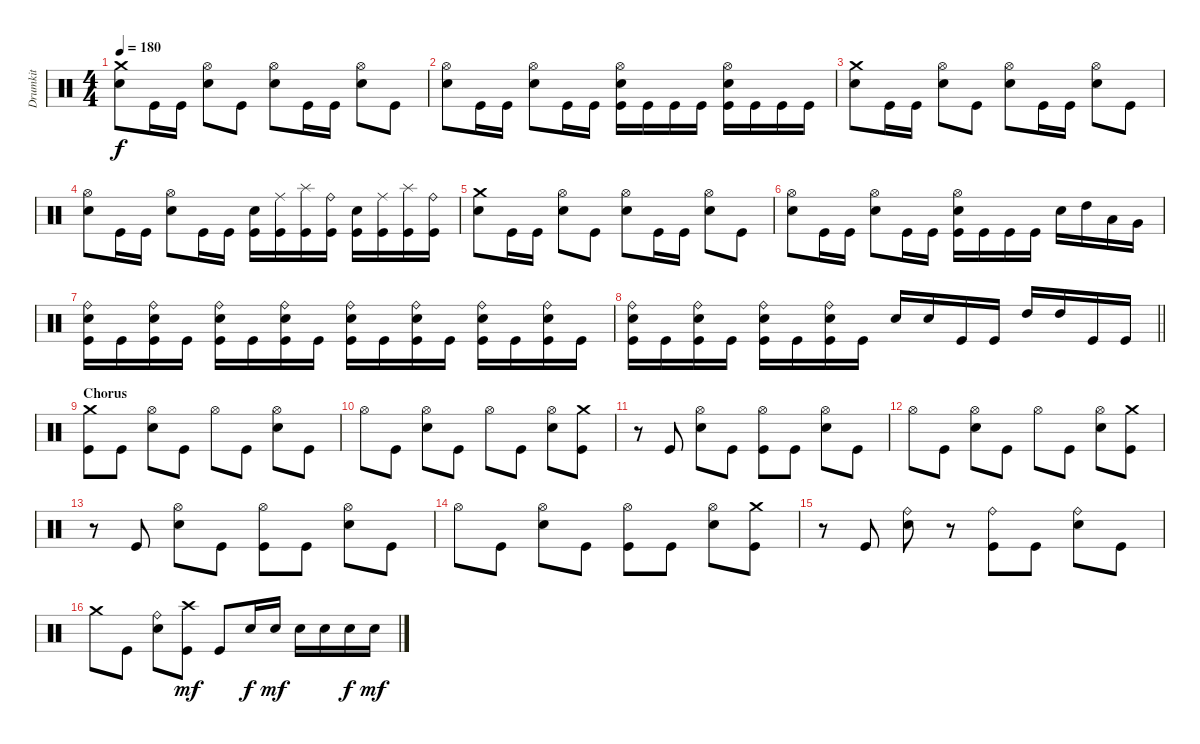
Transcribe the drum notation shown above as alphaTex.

\track ("Drumkit" "Drumkit") {instrument percussion}
\staff {score}
\articulation defaults
\ts (4 4)
\tempo 180
\clef neutral
\ks c
("Crash medium (hit)" "Snare (hit) 2").8{dy f} "Kick (hit)".16 "Kick (hit)".16 ("Hi-Hat (open)" "Snare (hit) 2").8 "Kick (hit)".8 ("Hi-Hat (open)" "Snare (hit) 2").8 "Kick (hit)".16 "Kick (hit)".16 ("Hi-Hat (open)" "Snare (hit) 2").8 "Kick (hit)".8 |
("Hi-Hat (open)" "Snare (hit) 2").8 "Kick (hit)".16 "Kick (hit)".16 ("Hi-Hat (open)" "Snare (hit) 2").8 "Kick (hit)".16 "Kick (hit)".16 ("Hi-Hat (open)" "Snare (hit) 2" "Kick (hit)").16 "Kick (hit)".16 "Kick (hit)".16 "Kick (hit)".16 ("Hi-Hat (open)" "Snare (hit) 2" "Kick (hit)").16 "Kick (hit)".16 "Kick (hit)".16 "Kick (hit)".16 |
("Crash medium (hit)" "Snare (hit) 2").8 "Kick (hit)".16 "Kick (hit)".16 ("Hi-Hat (open)" "Snare (hit) 2").8 "Kick (hit)".8 ("Hi-Hat (open)" "Snare (hit) 2").8 "Kick (hit)".16 "Kick (hit)".16 ("Hi-Hat (open)" "Snare (hit) 2").8 "Kick (hit)".8 |
("Hi-Hat (open)" "Snare (hit) 2").8 "Kick (hit)".16 "Kick (hit)".16 ("Hi-Hat (open)" "Snare (hit) 2").8 "Kick (hit)".16 "Kick (hit)".16 ("Snare (hit) 2" "Kick (hit)").16 ("Ride (middle)" "Kick (hit)").16 ("Splash (hit)" "Kick (hit)").16 ("Ride (bell)" "Kick (hit)").16 ("Snare (hit) 2" "Kick (hit)").16 ("Ride (middle)" "Kick (hit)").16 ("Splash (hit)" "Kick (hit)").16 ("Ride (bell)" "Kick (hit)").16 |
("Crash medium (hit)" "Snare (hit) 2").8 "Kick (hit)".16 "Kick (hit)".16 ("Hi-Hat (open)" "Snare (hit) 2").8 "Kick (hit)".8 ("Hi-Hat (open)" "Snare (hit) 2").8 "Kick (hit)".16 "Kick (hit)".16 ("Hi-Hat (open)" "Snare (hit) 2").8 "Kick (hit)".8 |
("Hi-Hat (open)" "Snare (hit) 2").8 "Kick (hit)".16 "Kick (hit)".16 ("Hi-Hat (open)" "Snare (hit) 2").8 "Kick (hit)".16 "Kick (hit)".16 ("Hi-Hat (open)" "Snare (hit) 2" "Kick (hit)").16 "Kick (hit)".16 "Kick (hit)".16 "Kick (hit)".16 "Snare (hit) 2".16 "High Tom (hit)".16 "Low Tom (hit)".16 "Very Low Tom (hit)".16 |
("Ride (bell)" "Snare (hit) 2" "Kick (hit)").16 "Kick (hit)".16 ("Ride (bell)" "Snare (hit) 2" "Kick (hit)").16 "Kick (hit)".16 ("Ride (bell)" "Snare (hit) 2" "Kick (hit)").16 "Kick (hit)".16 ("Ride (bell)" "Snare (hit) 2" "Kick (hit)").16 "Kick (hit)".16 ("Ride (bell)" "Snare (hit) 2" "Kick (hit)").16 "Kick (hit)".16 ("Ride (bell)" "Snare (hit) 2" "Kick (hit)").16 "Kick (hit)".16 ("Ride (bell)" "Snare (hit) 2" "Kick (hit)").16 "Kick (hit)".16 ("Ride (bell)" "Snare (hit) 2" "Kick (hit)").16 "Kick (hit)".16 |
\barLineRight lightlight
("Ride (bell)" "Snare (hit) 2" "Kick (hit)").16 "Kick (hit)".16 ("Ride (bell)" "Snare (hit) 2" "Kick (hit)").16 "Kick (hit)".16 ("Ride (bell)" "Snare (hit) 2" "Kick (hit)").16 "Kick (hit)".16 ("Ride (bell)" "Snare (hit) 2" "Kick (hit)").16 "Kick (hit)".16 "Snare (hit) 2".16 "Snare (hit) 2".16 "Kick (hit)".16 "Kick (hit)".16 "High Tom (hit)".16 "High Tom (hit)".16 "Kick (hit)".16 "Kick (hit)".16 |
\section ("" "Chorus")
("Crash medium (hit)" "Kick (hit)").8 "Kick (hit)".8 ("Hi-Hat (open)" "Snare (hit) 2").8 "Kick (hit)".8 "Hi-Hat (open)".8 "Kick (hit)".8 ("Hi-Hat (open)" "Snare (hit) 2").8 "Kick (hit)".8 |
"Hi-Hat (open)".8 "Kick (hit)".8 ("Hi-Hat (open)" "Snare (hit) 2").8 "Kick (hit)".8 "Hi-Hat (open)".8 "Kick (hit)".8 ("Hi-Hat (open)" "Snare (hit) 2").8 ("Crash medium (hit)" "Kick (hit)").8 |
r.8 "Kick (hit)".8 ("Hi-Hat (open)" "Snare (hit) 2").8 "Kick (hit)".8 ("Hi-Hat (open)" "Kick (hit)").8 "Kick (hit)".8 ("Hi-Hat (open)" "Snare (hit) 2").8 "Kick (hit)".8 |
"Hi-Hat (open)".8 "Kick (hit)".8 ("Hi-Hat (open)" "Snare (hit) 2").8 "Kick (hit)".8 "Hi-Hat (open)".8 "Kick (hit)".8 ("Hi-Hat (open)" "Snare (hit) 2").8 ("Crash medium (hit)" "Kick (hit)").8 |
r.8 "Kick (hit)".8 ("Hi-Hat (open)" "Snare (hit) 2").8 "Kick (hit)".8 ("Hi-Hat (open)" "Kick (hit)").8 "Kick (hit)".8 ("Hi-Hat (open)" "Snare (hit) 2").8 "Kick (hit)".8 |
"Hi-Hat (open)".8 "Kick (hit)".8 ("Hi-Hat (open)" "Snare (hit) 2").8 "Kick (hit)".8 ("Hi-Hat (open)" "Kick (hit)").8 "Kick (hit)".8 ("Hi-Hat (open)" "Snare (hit) 2").8 ("Crash medium (hit)" "Kick (hit)").8 |
r.8 "Kick (hit)".8 ("Ride (bell)" "Snare (hit) 2").8 r.8 ("Ride (bell)" "Kick (hit)").8 "Kick (hit)".8 ("Ride (bell)" "Snare (hit) 2").8 "Kick (hit)".8 |
"Crash medium (hit)".8 "Kick (hit)".8 ("Ride (bell)" "Snare (hit) 2").8 ("Crash high (hit)" "Kick (hit)").8{dy mf} "Kick (hit)".8 "Snare (hit) 2".16{dy f} "Snare (hit) 2".16{dy mf} "Snare (hit) 2".16 "Snare (hit) 2".16 "Snare (hit) 2".16{dy f} "Snare (hit) 2".16{dy mf}
